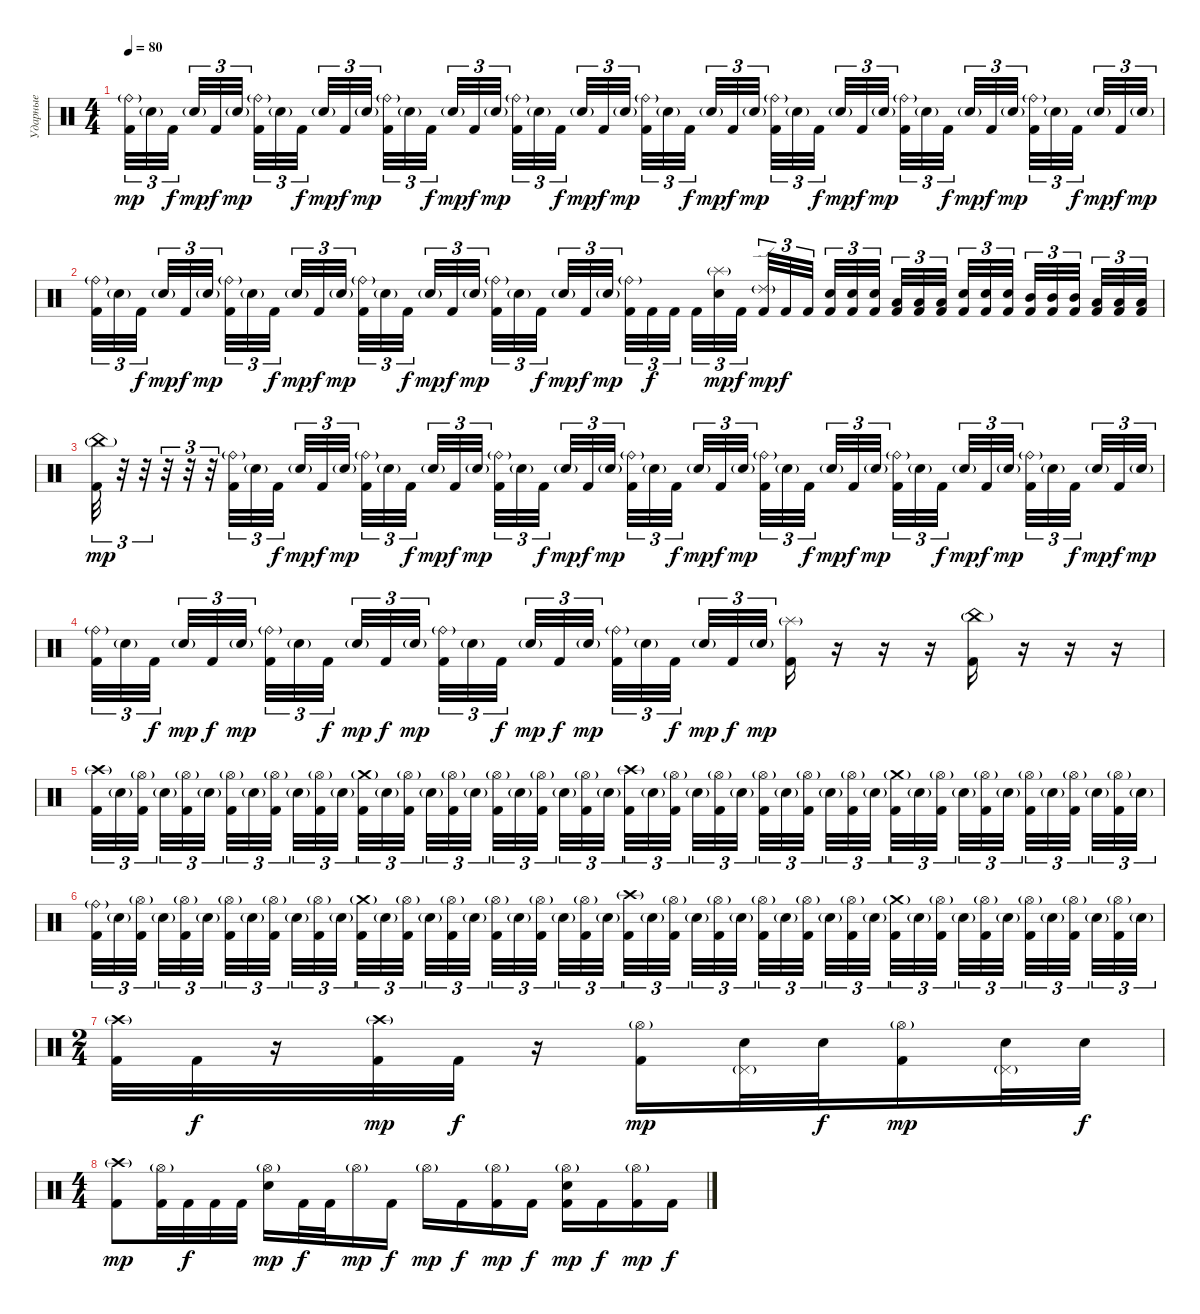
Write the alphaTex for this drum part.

\track ("Ударные" "Ударные") {instrument percussion}
\staff {score}
\articulation defaults
\ts (4 4)
\tempo 80
\clef neutral
\ks c
("Ride (bell)"{g} "Kick (hit) 2").32{tu (3 2) dy mp volume 16} "Electric Snare (hit)"{g}.32{tu (3 2)} "Kick (hit) 2".32{tu (3 2) dy f} "Electric Snare (hit)"{g}.32{tu (3 2) dy mp} "Kick (hit) 2".32{tu (3 2) dy f} "Electric Snare (hit)"{g}.32{tu (3 2) dy mp} ("Ride (bell)"{g} "Kick (hit) 2").32{tu (3 2)} "Electric Snare (hit)"{g}.32{tu (3 2)} "Kick (hit) 2".32{tu (3 2) dy f} "Electric Snare (hit)"{g}.32{tu (3 2) dy mp} "Kick (hit) 2".32{tu (3 2) dy f} "Electric Snare (hit)"{g}.32{tu (3 2) dy mp} ("Ride (bell)"{g} "Kick (hit) 2").32{tu (3 2)} "Electric Snare (hit)"{g}.32{tu (3 2)} "Kick (hit) 2".32{tu (3 2) dy f} "Electric Snare (hit)"{g}.32{tu (3 2) dy mp} "Kick (hit) 2".32{tu (3 2) dy f} "Electric Snare (hit)"{g}.32{tu (3 2) dy mp} ("Ride (bell)"{g} "Kick (hit) 2").32{tu (3 2)} "Electric Snare (hit)"{g}.32{tu (3 2)} "Kick (hit) 2".32{tu (3 2) dy f} "Electric Snare (hit)"{g}.32{tu (3 2) dy mp} "Kick (hit) 2".32{tu (3 2) dy f} "Electric Snare (hit)"{g}.32{tu (3 2) dy mp} ("Ride (bell)"{g} "Kick (hit) 2").32{tu (3 2)} "Electric Snare (hit)"{g}.32{tu (3 2)} "Kick (hit) 2".32{tu (3 2) dy f} "Electric Snare (hit)"{g}.32{tu (3 2) dy mp} "Kick (hit) 2".32{tu (3 2) dy f} "Electric Snare (hit)"{g}.32{tu (3 2) dy mp} ("Ride (bell)"{g} "Kick (hit) 2").32{tu (3 2)} "Electric Snare (hit)"{g}.32{tu (3 2)} "Kick (hit) 2".32{tu (3 2) dy f} "Electric Snare (hit)"{g}.32{tu (3 2) dy mp} "Kick (hit) 2".32{tu (3 2) dy f} "Electric Snare (hit)"{g}.32{tu (3 2) dy mp} ("Ride (bell)"{g} "Kick (hit) 2").32{tu (3 2)} "Electric Snare (hit)"{g}.32{tu (3 2)} "Kick (hit) 2".32{tu (3 2) dy f} "Electric Snare (hit)"{g}.32{tu (3 2) dy mp} "Kick (hit) 2".32{tu (3 2) dy f} "Electric Snare (hit)"{g}.32{tu (3 2) dy mp} ("Ride (bell)"{g} "Kick (hit) 2").32{tu (3 2)} "Electric Snare (hit)"{g}.32{tu (3 2)} "Kick (hit) 2".32{tu (3 2) dy f} "Electric Snare (hit)"{g}.32{tu (3 2) dy mp} "Kick (hit) 2".32{tu (3 2) dy f} "Electric Snare (hit)"{g}.32{tu (3 2) dy mp} |
("Ride (bell)"{g} "Kick (hit) 2").32{tu (3 2)} "Electric Snare (hit)"{g}.32{tu (3 2)} "Kick (hit) 2".32{tu (3 2) dy f} "Electric Snare (hit)"{g}.32{tu (3 2) dy mp} "Kick (hit) 2".32{tu (3 2) dy f} "Electric Snare (hit)"{g}.32{tu (3 2) dy mp} ("Ride (bell)"{g} "Kick (hit) 2").32{tu (3 2)} "Electric Snare (hit)"{g}.32{tu (3 2)} "Kick (hit) 2".32{tu (3 2) dy f} "Electric Snare (hit)"{g}.32{tu (3 2) dy mp} "Kick (hit) 2".32{tu (3 2) dy f} "Electric Snare (hit)"{g}.32{tu (3 2) dy mp} ("Ride (bell)"{g} "Kick (hit) 2").32{tu (3 2)} "Electric Snare (hit)"{g}.32{tu (3 2)} "Kick (hit) 2".32{tu (3 2) dy f} "Electric Snare (hit)"{g}.32{tu (3 2) dy mp} "Kick (hit) 2".32{tu (3 2) dy f} "Electric Snare (hit)"{g}.32{tu (3 2) dy mp} ("Ride (bell)"{g} "Kick (hit) 2").32{tu (3 2)} "Electric Snare (hit)"{g}.32{tu (3 2)} "Kick (hit) 2".32{tu (3 2) dy f} "Electric Snare (hit)"{g}.32{tu (3 2) dy mp} "Kick (hit) 2".32{tu (3 2) dy f} "Electric Snare (hit)"{g}.32{tu (3 2) dy mp} ("Ride (bell)"{g} "Kick (hit) 2").32{tu (3 2)} "Kick (hit) 2".32{tu (3 2) dy f} "Kick (hit) 2".32{tu (3 2)} "Kick (hit) 2".32{tu (3 2)} ("Splash (hit)"{g} "Electric Snare (hit)").32{tu (3 2) dy mp} "Kick (hit) 2".32{tu (3 2) dy f} ("Ride (edge) 2"{g} "Kick (hit) 2").32{tu (3 2) dy mp} "Kick (hit) 2".32{tu (3 2) dy f} "Kick (hit) 2".32{tu (3 2)} ("Electric Snare (hit)" "Kick (hit) 2").32{tu (3 2)} ("Electric Snare (hit)" "Kick (hit) 2").32{tu (3 2)} ("Electric Snare (hit)" "Kick (hit) 2").32{tu (3 2)} ("Low Tom (hit)" "Kick (hit) 2").32{tu (3 2)} ("Low Tom (hit)" "Kick (hit) 2").32{tu (3 2)} ("Low Tom (hit)" "Kick (hit) 2").32{tu (3 2)} ("Electric Snare (hit)" "Kick (hit) 2").32{tu (3 2)} ("Electric Snare (hit)" "Kick (hit) 2").32{tu (3 2)} ("Electric Snare (hit)" "Kick (hit) 2").32{tu (3 2)} ("Mid Tom (hit)" "Kick (hit) 2").32{tu (3 2)} ("Mid Tom (hit)" "Kick (hit) 2").32{tu (3 2)} ("Mid Tom (hit)" "Kick (hit) 2").32{tu (3 2)} ("Low Tom (hit)" "Kick (hit) 2").32{tu (3 2)} ("Low Tom (hit)" "Kick (hit) 2").32{tu (3 2)} ("Low Tom (hit)" "Kick (hit) 2").32{tu (3 2)} |
("China (hit)"{g} "Kick (hit) 2").32{tu (3 2) dy mp} r.32{tu (3 2)} r.32{tu (3 2)} r.32{tu (3 2)} r.32{tu (3 2)} r.32{tu (3 2)} ("Ride (bell)"{g} "Kick (hit) 2").32{tu (3 2)} "Electric Snare (hit)"{g}.32{tu (3 2)} "Kick (hit) 2".32{tu (3 2) dy f} "Electric Snare (hit)"{g}.32{tu (3 2) dy mp} "Kick (hit) 2".32{tu (3 2) dy f} "Electric Snare (hit)"{g}.32{tu (3 2) dy mp} ("Ride (bell)"{g} "Kick (hit) 2").32{tu (3 2)} "Electric Snare (hit)"{g}.32{tu (3 2)} "Kick (hit) 2".32{tu (3 2) dy f} "Electric Snare (hit)"{g}.32{tu (3 2) dy mp} "Kick (hit) 2".32{tu (3 2) dy f} "Electric Snare (hit)"{g}.32{tu (3 2) dy mp} ("Ride (bell)"{g} "Kick (hit) 2").32{tu (3 2)} "Electric Snare (hit)"{g}.32{tu (3 2)} "Kick (hit) 2".32{tu (3 2) dy f} "Electric Snare (hit)"{g}.32{tu (3 2) dy mp} "Kick (hit) 2".32{tu (3 2) dy f} "Electric Snare (hit)"{g}.32{tu (3 2) dy mp} ("Ride (bell)"{g} "Kick (hit) 2").32{tu (3 2)} "Electric Snare (hit)"{g}.32{tu (3 2)} "Kick (hit) 2".32{tu (3 2) dy f} "Electric Snare (hit)"{g}.32{tu (3 2) dy mp} "Kick (hit) 2".32{tu (3 2) dy f} "Electric Snare (hit)"{g}.32{tu (3 2) dy mp} ("Ride (bell)"{g} "Kick (hit) 2").32{tu (3 2)} "Electric Snare (hit)"{g}.32{tu (3 2)} "Kick (hit) 2".32{tu (3 2) dy f} "Electric Snare (hit)"{g}.32{tu (3 2) dy mp} "Kick (hit) 2".32{tu (3 2) dy f} "Electric Snare (hit)"{g}.32{tu (3 2) dy mp} ("Ride (bell)"{g} "Kick (hit) 2").32{tu (3 2)} "Electric Snare (hit)"{g}.32{tu (3 2)} "Kick (hit) 2".32{tu (3 2) dy f} "Electric Snare (hit)"{g}.32{tu (3 2) dy mp} "Kick (hit) 2".32{tu (3 2) dy f} "Electric Snare (hit)"{g}.32{tu (3 2) dy mp} ("Ride (bell)"{g} "Kick (hit) 2").32{tu (3 2)} "Electric Snare (hit)"{g}.32{tu (3 2)} "Kick (hit) 2".32{tu (3 2) dy f} "Electric Snare (hit)"{g}.32{tu (3 2) dy mp} "Kick (hit) 2".32{tu (3 2) dy f} "Electric Snare (hit)"{g}.32{tu (3 2) dy mp} |
("Ride (bell)"{g} "Kick (hit) 2").32{tu (3 2)} "Electric Snare (hit)"{g}.32{tu (3 2)} "Kick (hit) 2".32{tu (3 2) dy f} "Electric Snare (hit)"{g}.32{tu (3 2) dy mp} "Kick (hit) 2".32{tu (3 2) dy f} "Electric Snare (hit)"{g}.32{tu (3 2) dy mp} ("Ride (bell)"{g} "Kick (hit) 2").32{tu (3 2)} "Electric Snare (hit)"{g}.32{tu (3 2)} "Kick (hit) 2".32{tu (3 2) dy f} "Electric Snare (hit)"{g}.32{tu (3 2) dy mp} "Kick (hit) 2".32{tu (3 2) dy f} "Electric Snare (hit)"{g}.32{tu (3 2) dy mp} ("Ride (bell)"{g} "Kick (hit) 2").32{tu (3 2)} "Electric Snare (hit)"{g}.32{tu (3 2)} "Kick (hit) 2".32{tu (3 2) dy f} "Electric Snare (hit)"{g}.32{tu (3 2) dy mp} "Kick (hit) 2".32{tu (3 2) dy f} "Electric Snare (hit)"{g}.32{tu (3 2) dy mp} ("Ride (bell)"{g} "Kick (hit) 2").32{tu (3 2)} "Electric Snare (hit)"{g}.32{tu (3 2)} "Kick (hit) 2".32{tu (3 2) dy f} "Electric Snare (hit)"{g}.32{tu (3 2) dy mp} "Kick (hit) 2".32{tu (3 2) dy f} "Electric Snare (hit)"{g}.32{tu (3 2) dy mp} ("Splash (hit)"{g} "Kick (hit) 2").16 r.16{volume 0} r.16 r.16 ("China (hit)"{g} "Kick (hit) 2").16{volume 16} r.16{volume 0} r.16 r.16 |
("Crash high (hit)"{g} "Kick (hit) 2").32{tu (3 2) volume 16} "Electric Snare (hit)"{g}.32{tu (3 2)} ("Hi-Hat (open)"{g} "Kick (hit) 2").32{tu (3 2)} "Electric Snare (hit)"{g}.32{tu (3 2)} ("Hi-Hat (open)"{g} "Kick (hit) 2").32{tu (3 2)} "Electric Snare (hit)"{g}.32{tu (3 2)} ("Hi-Hat (open)"{g} "Kick (hit) 2").32{tu (3 2)} "Electric Snare (hit)"{g}.32{tu (3 2)} ("Hi-Hat (open)"{g} "Kick (hit) 2").32{tu (3 2)} "Electric Snare (hit)"{g}.32{tu (3 2)} ("Hi-Hat (open)"{g} "Kick (hit) 2").32{tu (3 2)} "Electric Snare (hit)"{g}.32{tu (3 2)} ("Crash medium (hit)"{g} "Kick (hit) 2").32{tu (3 2)} "Electric Snare (hit)"{g}.32{tu (3 2)} ("Hi-Hat (open)"{g} "Kick (hit) 2").32{tu (3 2)} "Electric Snare (hit)"{g}.32{tu (3 2)} ("Hi-Hat (open)"{g} "Kick (hit) 2").32{tu (3 2)} "Electric Snare (hit)"{g}.32{tu (3 2)} ("Hi-Hat (open)"{g} "Kick (hit) 2").32{tu (3 2)} "Electric Snare (hit)"{g}.32{tu (3 2)} ("Hi-Hat (open)"{g} "Kick (hit) 2").32{tu (3 2)} "Electric Snare (hit)"{g}.32{tu (3 2)} ("Hi-Hat (open)"{g} "Kick (hit) 2").32{tu (3 2)} "Electric Snare (hit)"{g}.32{tu (3 2)} ("Crash high (hit)"{g} "Kick (hit) 2").32{tu (3 2)} "Electric Snare (hit)"{g}.32{tu (3 2)} ("Hi-Hat (open)"{g} "Kick (hit) 2").32{tu (3 2)} "Electric Snare (hit)"{g}.32{tu (3 2)} ("Hi-Hat (open)"{g} "Kick (hit) 2").32{tu (3 2)} "Electric Snare (hit)"{g}.32{tu (3 2)} ("Hi-Hat (open)"{g} "Kick (hit) 2").32{tu (3 2)} "Electric Snare (hit)"{g}.32{tu (3 2)} ("Hi-Hat (open)"{g} "Kick (hit) 2").32{tu (3 2)} "Electric Snare (hit)"{g}.32{tu (3 2)} ("Hi-Hat (open)"{g} "Kick (hit) 2").32{tu (3 2)} "Electric Snare (hit)"{g}.32{tu (3 2)} ("Crash medium (hit)"{g} "Kick (hit) 2").32{tu (3 2)} "Electric Snare (hit)"{g}.32{tu (3 2)} ("Hi-Hat (open)"{g} "Kick (hit) 2").32{tu (3 2)} "Electric Snare (hit)"{g}.32{tu (3 2)} ("Hi-Hat (open)"{g} "Kick (hit) 2").32{tu (3 2)} "Electric Snare (hit)"{g}.32{tu (3 2)} ("Hi-Hat (open)"{g} "Kick (hit) 2").32{tu (3 2)} "Electric Snare (hit)"{g}.32{tu (3 2)} ("Hi-Hat (open)"{g} "Kick (hit) 2").32{tu (3 2)} "Electric Snare (hit)"{g}.32{tu (3 2)} ("Hi-Hat (open)"{g} "Kick (hit) 2").32{tu (3 2)} "Electric Snare (hit)"{g}.32{tu (3 2)} |
("Ride (bell)"{g} "Kick (hit) 2").32{tu (3 2)} "Electric Snare (hit)"{g}.32{tu (3 2)} ("Hi-Hat (open)"{g} "Kick (hit) 2").32{tu (3 2)} "Electric Snare (hit)"{g}.32{tu (3 2)} ("Hi-Hat (open)"{g} "Kick (hit) 2").32{tu (3 2)} "Electric Snare (hit)"{g}.32{tu (3 2)} ("Hi-Hat (open)"{g} "Kick (hit) 2").32{tu (3 2)} "Electric Snare (hit)"{g}.32{tu (3 2)} ("Hi-Hat (open)"{g} "Kick (hit) 2").32{tu (3 2)} "Electric Snare (hit)"{g}.32{tu (3 2)} ("Hi-Hat (open)"{g} "Kick (hit) 2").32{tu (3 2)} "Electric Snare (hit)"{g}.32{tu (3 2)} ("Crash medium (hit)"{g} "Kick (hit) 2").32{tu (3 2)} "Electric Snare (hit)"{g}.32{tu (3 2)} ("Hi-Hat (open)"{g} "Kick (hit) 2").32{tu (3 2)} "Electric Snare (hit)"{g}.32{tu (3 2)} ("Hi-Hat (open)"{g} "Kick (hit) 2").32{tu (3 2)} "Electric Snare (hit)"{g}.32{tu (3 2)} ("Hi-Hat (open)"{g} "Kick (hit) 2").32{tu (3 2)} "Electric Snare (hit)"{g}.32{tu (3 2)} ("Hi-Hat (open)"{g} "Kick (hit) 2").32{tu (3 2)} "Electric Snare (hit)"{g}.32{tu (3 2)} ("Hi-Hat (open)"{g} "Kick (hit) 2").32{tu (3 2)} "Electric Snare (hit)"{g}.32{tu (3 2)} ("Crash high (hit)"{g} "Kick (hit) 2").32{tu (3 2)} "Electric Snare (hit)"{g}.32{tu (3 2)} ("Hi-Hat (open)"{g} "Kick (hit) 2").32{tu (3 2)} "Electric Snare (hit)"{g}.32{tu (3 2)} ("Hi-Hat (open)"{g} "Kick (hit) 2").32{tu (3 2)} "Electric Snare (hit)"{g}.32{tu (3 2)} ("Hi-Hat (open)"{g} "Kick (hit) 2").32{tu (3 2)} "Electric Snare (hit)"{g}.32{tu (3 2)} ("Hi-Hat (open)"{g} "Kick (hit) 2").32{tu (3 2)} "Electric Snare (hit)"{g}.32{tu (3 2)} ("Hi-Hat (open)"{g} "Kick (hit) 2").32{tu (3 2)} "Electric Snare (hit)"{g}.32{tu (3 2)} ("Crash medium (hit)"{g} "Kick (hit) 2").32{tu (3 2)} "Electric Snare (hit)"{g}.32{tu (3 2)} ("Hi-Hat (open)"{g} "Kick (hit) 2").32{tu (3 2)} "Electric Snare (hit)"{g}.32{tu (3 2)} ("Hi-Hat (open)"{g} "Kick (hit) 2").32{tu (3 2)} "Electric Snare (hit)"{g}.32{tu (3 2)} ("Hi-Hat (open)"{g} "Kick (hit) 2").32{tu (3 2)} "Electric Snare (hit)"{g}.32{tu (3 2)} ("Hi-Hat (open)"{g} "Kick (hit) 2").32{tu (3 2)} "Electric Snare (hit)"{g}.32{tu (3 2)} ("Hi-Hat (open)"{g} "Kick (hit) 2").32{tu (3 2)} "Electric Snare (hit)"{g}.32{tu (3 2)} |
\ts (2 4)
("Crash high (hit)"{g} "Kick (hit) 2").32 "Kick (hit) 2".32{dy f} r.16{volume 0} ("Crash high (hit)"{g} "Kick (hit) 2").32{dy mp volume 16} "Kick (hit) 2".32{dy f} r.16{volume 0} ("Hi-Hat (open)"{g} "Kick (hit) 2").16{dy mp volume 16} ("Pedal Hi-Hat (hit)"{g} "Electric Snare (hit)").32 "Electric Snare (hit)".32{dy f} ("Hi-Hat (open)"{g} "Kick (hit) 2").16{dy mp} ("Pedal Hi-Hat (hit)"{g} "Electric Snare (hit)").32 "Electric Snare (hit)".32{dy f} |
\ts (4 4)
("Crash high (hit)"{g} "Kick (hit) 2").8{dy mp} ("Hi-Hat (open)"{g} "Kick (hit) 2").32 "Kick (hit) 2".32{dy f} "Kick (hit) 2".32 "Kick (hit) 2".32 ("Hi-Hat (open)"{g} "Electric Snare (hit)").16{dy mp} "Kick (hit) 2".32{dy f} "Kick (hit) 2".32 "Hi-Hat (open)"{g}.16{dy mp} "Kick (hit) 2".16{dy f} "Hi-Hat (open)"{g}.16{dy mp} "Kick (hit) 2".16{dy f} ("Hi-Hat (open)"{g} "Kick (hit) 2").16{dy mp} "Kick (hit) 2".16{dy f} ("Hi-Hat (open)"{g} "Electric Snare (hit)" "Kick (hit) 2").16{dy mp} "Kick (hit) 2".16{dy f} ("Hi-Hat (open)"{g} "Kick (hit) 2").16{dy mp} "Kick (hit) 2".16{dy f}
